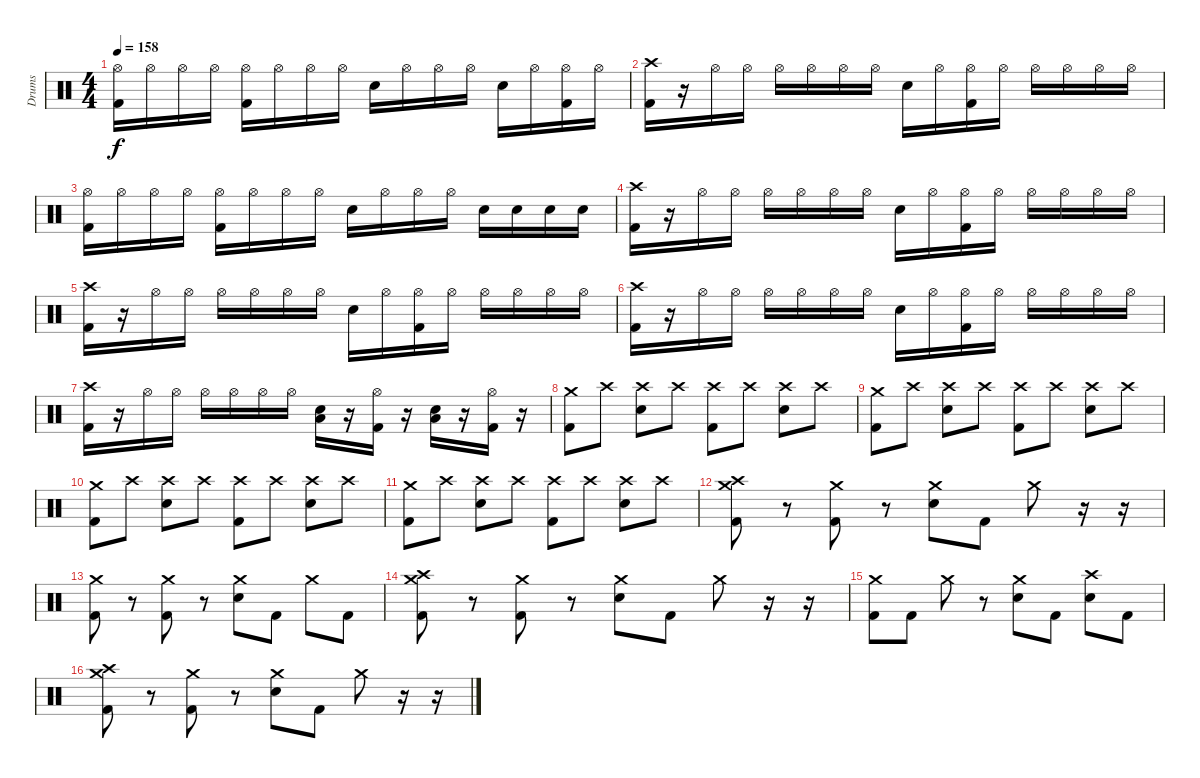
\track ("Drums" "Drums") {instrument percussion}
\staff {score}
\articulation defaults
\ts (4 4)
\tempo 158
\clef neutral
\ks c
("Hi-Hat (open)" "Kick (hit) 2").16{dy f} "Hi-Hat (open)".16 "Hi-Hat (open)".16 "Hi-Hat (open)".16 ("Hi-Hat (open)" "Kick (hit) 2").16 "Hi-Hat (open)".16 "Hi-Hat (open)".16 "Hi-Hat (open)".16 "Snare (hit) 2".16 "Hi-Hat (open)".16 "Hi-Hat (open)".16 "Hi-Hat (open)".16 "Snare (hit) 2".16 "Hi-Hat (open)".16 ("Hi-Hat (open)" "Kick (hit) 2").16 "Hi-Hat (open)".16 |
("Crash high (hit)" "Kick (hit) 2").16 r.16 "Hi-Hat (open)".16 "Hi-Hat (open)".16 "Hi-Hat (open)".16 "Hi-Hat (open)".16 "Hi-Hat (open)".16 "Hi-Hat (open)".16 "Snare (hit) 2".16 "Hi-Hat (open)".16 ("Hi-Hat (open)" "Kick (hit) 2").16 "Hi-Hat (open)".16 "Hi-Hat (open)".16 "Hi-Hat (open)".16 "Hi-Hat (open)".16 "Hi-Hat (open)".16 |
("Hi-Hat (open)" "Kick (hit) 2").16 "Hi-Hat (open)".16 "Hi-Hat (open)".16 "Hi-Hat (open)".16 ("Hi-Hat (open)" "Kick (hit) 2").16 "Hi-Hat (open)".16 "Hi-Hat (open)".16 "Hi-Hat (open)".16 "Snare (hit) 2".16 "Hi-Hat (open)".16 "Hi-Hat (open)".16 "Hi-Hat (open)".16 "Snare (hit) 2".16 "Snare (hit) 2".16 "Snare (hit) 2".16 "Snare (hit) 2".16 |
("Crash high (hit)" "Kick (hit) 2").16 r.16 "Hi-Hat (open)".16 "Hi-Hat (open)".16 "Hi-Hat (open)".16 "Hi-Hat (open)".16 "Hi-Hat (open)".16 "Hi-Hat (open)".16 "Snare (hit) 2".16 "Hi-Hat (open)".16 ("Hi-Hat (open)" "Kick (hit) 2").16 "Hi-Hat (open)".16 "Hi-Hat (open)".16 "Hi-Hat (open)".16 "Hi-Hat (open)".16 "Hi-Hat (open)".16 |
("Crash high (hit)" "Kick (hit) 2").16 r.16 "Hi-Hat (open)".16 "Hi-Hat (open)".16 "Hi-Hat (open)".16 "Hi-Hat (open)".16 "Hi-Hat (open)".16 "Hi-Hat (open)".16 "Snare (hit) 2".16 "Hi-Hat (open)".16 ("Hi-Hat (open)" "Kick (hit) 2").16 "Hi-Hat (open)".16 "Hi-Hat (open)".16 "Hi-Hat (open)".16 "Hi-Hat (open)".16 "Hi-Hat (open)".16 |
("Crash high (hit)" "Kick (hit) 2").16 r.16 "Hi-Hat (open)".16 "Hi-Hat (open)".16 "Hi-Hat (open)".16 "Hi-Hat (open)".16 "Hi-Hat (open)".16 "Hi-Hat (open)".16 "Snare (hit) 2".16 "Hi-Hat (open)".16 ("Hi-Hat (open)" "Kick (hit) 2").16 "Hi-Hat (open)".16 "Hi-Hat (open)".16 "Hi-Hat (open)".16 "Hi-Hat (open)".16 "Hi-Hat (open)".16 |
("Crash high (hit)" "Kick (hit) 2").16 r.16 "Hi-Hat (open)".16 "Hi-Hat (open)".16 "Hi-Hat (open)".16 "Hi-Hat (open)".16 "Hi-Hat (open)".16 "Hi-Hat (open)".16 ("Low Floor Tom (hit)" "Snare (hit) 2").16 r.16 ("Hi-Hat (open)" "Kick (hit) 2").16 r.16 ("Low Floor Tom (hit)" "Snare (hit) 2").16 r.16 ("Hi-Hat (open)" "Kick (hit) 2").16 r.16 |
("Crash medium (hit)" "Kick (hit) 2").8 "Crash high (hit)".8 ("Crash high (hit)" "Snare (hit) 2").8 "Crash high (hit)".8 ("Crash high (hit)" "Kick (hit) 2").8 "Crash high (hit)".8 ("Crash high (hit)" "Snare (hit) 2").8 "Crash high (hit)".8 |
("Crash medium (hit)" "Kick (hit) 2").8 "Crash high (hit)".8 ("Crash high (hit)" "Snare (hit) 2").8 "Crash high (hit)".8 ("Crash high (hit)" "Kick (hit) 2").8 "Crash high (hit)".8 ("Crash high (hit)" "Snare (hit) 2").8 "Crash high (hit)".8 |
("Crash medium (hit)" "Kick (hit) 2").8 "Crash high (hit)".8 ("Crash high (hit)" "Snare (hit) 2").8 "Crash high (hit)".8 ("Crash high (hit)" "Kick (hit) 2").8 "Crash high (hit)".8 ("Crash high (hit)" "Snare (hit) 2").8 "Crash high (hit)".8 |
("Crash medium (hit)" "Kick (hit) 2").8 "Crash high (hit)".8 ("Crash high (hit)" "Snare (hit) 2").8 "Crash high (hit)".8 ("Crash high (hit)" "Kick (hit) 2").8 "Crash high (hit)".8 ("Crash high (hit)" "Snare (hit) 2").8 "Crash high (hit)".8 |
("Crash high (hit)" "Crash medium (hit)" "Kick (hit) 2").8 r.8 ("Crash medium (hit)" "Kick (hit) 2").8 r.8 ("Crash medium (hit)" "Snare (hit) 2").8 "Kick (hit) 2".8 "Crash medium (hit)".8 r.16 r.16 |
("Crash medium (hit)" "Kick (hit) 2").8 r.8 ("Crash medium (hit)" "Kick (hit) 2").8 r.8 ("Crash medium (hit)" "Snare (hit) 2").8 "Kick (hit) 2".8 "Crash medium (hit)".8 "Kick (hit) 2".8 |
("Crash high (hit)" "Crash medium (hit)" "Kick (hit) 2").8 r.8 ("Crash medium (hit)" "Kick (hit) 2").8 r.8 ("Crash medium (hit)" "Snare (hit) 2").8 "Kick (hit) 2".8 "Crash medium (hit)".8 r.16 r.16 |
("Crash medium (hit)" "Kick (hit) 2").8 "Kick (hit) 2".8 "Crash medium (hit)".8 r.8 ("Crash medium (hit)" "Snare (hit) 2").8 "Kick (hit) 2".8 ("Crash high (hit)" "Snare (hit) 2").8 "Kick (hit) 2".8 |
("Crash high (hit)" "Crash medium (hit)" "Kick (hit) 2").8 r.8 ("Crash medium (hit)" "Kick (hit) 2").8 r.8 ("Crash medium (hit)" "Snare (hit) 2").8 "Kick (hit) 2".8 "Crash medium (hit)".8 r.16 r.16
